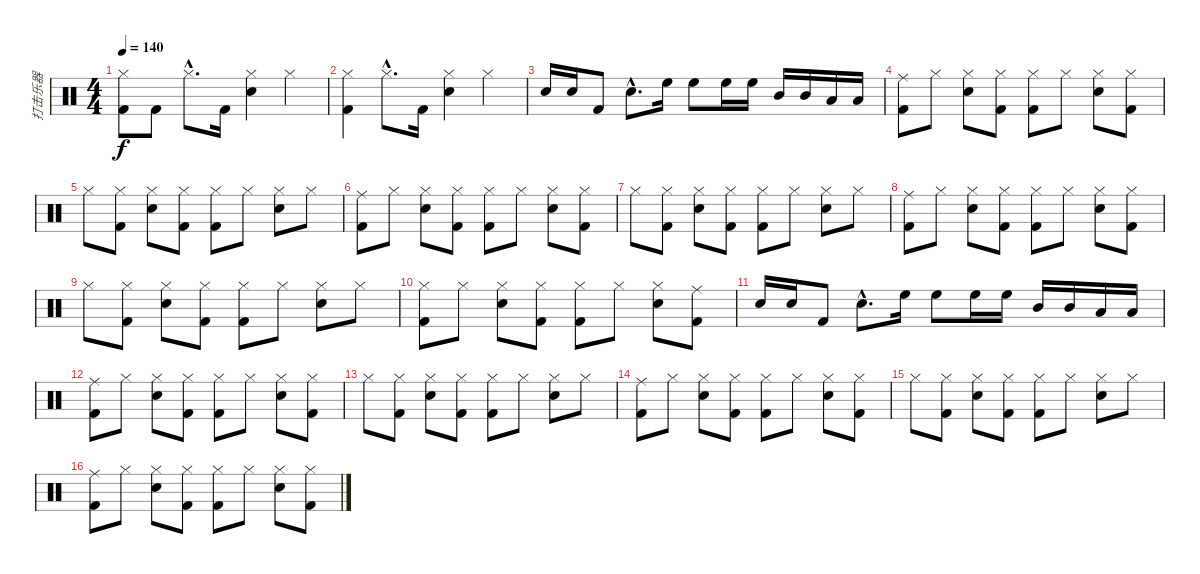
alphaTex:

\track ("打击乐器" "打击乐器") {instrument percussion}
\staff {score}
\articulation defaults
\ts (4 4)
\tempo 140
\clef neutral
\ks c
("Hi-Hat (closed)" "Kick (hit) 2").8{dy f} "Kick (hit) 2".8 "Hi-Hat (closed)"{hac}.8{d} "Kick (hit) 2".16 ("Hi-Hat (closed)" "Snare (hit) 2").4 "Hi-Hat (closed)".4 |
("Hi-Hat (closed)" "Kick (hit) 2").4 "Hi-Hat (closed)"{hac}.8{d} "Kick (hit) 2".16 ("Hi-Hat (closed)" "Snare (hit) 2").4 "Hi-Hat (closed)".4 |
"Snare (hit) 2".16 "Snare (hit) 2".16 "Kick (hit) 2".8 "Snare (hit) 2"{hac}.8{d} "High Floor Tom (hit)".16 "High Floor Tom (hit)".8 "High Floor Tom (hit)".16 "High Floor Tom (hit)".16 "Mid Tom (hit)".16 "Mid Tom (hit)".16 "Low Tom (hit)".16 "Low Tom (hit)".16 |
("Ride (middle)" "Kick (hit) 2").8 "Hi-Hat (closed)".8 ("Hi-Hat (closed)" "Snare (hit) 2").8 ("Hi-Hat (closed)" "Kick (hit) 2").8 ("Hi-Hat (closed)" "Kick (hit) 2").8 "Hi-Hat (closed)".8 ("Hi-Hat (closed)" "Snare (hit) 2").8 ("Hi-Hat (closed)" "Kick (hit) 2").8 |
"Hi-Hat (closed)".8 ("Hi-Hat (closed)" "Kick (hit) 2").8 ("Hi-Hat (closed)" "Snare (hit) 2").8 ("Hi-Hat (closed)" "Kick (hit) 2").8 ("Hi-Hat (closed)" "Kick (hit) 2").8 "Hi-Hat (closed)".8 ("Hi-Hat (closed)" "Snare (hit) 2").8 "Hi-Hat (closed)".8 |
("Ride (middle)" "Kick (hit) 2").8 "Hi-Hat (closed)".8 ("Hi-Hat (closed)" "Snare (hit) 2").8 ("Hi-Hat (closed)" "Kick (hit) 2").8 ("Hi-Hat (closed)" "Kick (hit) 2").8 "Hi-Hat (closed)".8 ("Hi-Hat (closed)" "Snare (hit) 2").8 ("Hi-Hat (closed)" "Kick (hit) 2").8 |
"Hi-Hat (closed)".8 ("Hi-Hat (closed)" "Kick (hit) 2").8 ("Hi-Hat (closed)" "Snare (hit) 2").8 ("Hi-Hat (closed)" "Kick (hit) 2").8 ("Hi-Hat (closed)" "Kick (hit) 2").8 "Hi-Hat (closed)".8 ("Hi-Hat (closed)" "Snare (hit) 2").8 "Hi-Hat (closed)".8 |
("Ride (middle)" "Kick (hit) 2").8 "Hi-Hat (closed)".8 ("Hi-Hat (closed)" "Snare (hit) 2").8 ("Hi-Hat (closed)" "Kick (hit) 2").8 ("Hi-Hat (closed)" "Kick (hit) 2").8 "Hi-Hat (closed)".8 ("Hi-Hat (closed)" "Snare (hit) 2").8 ("Hi-Hat (closed)" "Kick (hit) 2").8 |
"Hi-Hat (closed)".8 ("Hi-Hat (closed)" "Kick (hit) 2").8 ("Hi-Hat (closed)" "Snare (hit) 2").8 ("Hi-Hat (closed)" "Kick (hit) 2").8 ("Hi-Hat (closed)" "Kick (hit) 2").8 "Hi-Hat (closed)".8 ("Hi-Hat (closed)" "Snare (hit) 2").8 "Hi-Hat (closed)".8 |
("Hi-Hat (closed)" "Kick (hit) 2").8 "Hi-Hat (closed)".8 ("Hi-Hat (closed)" "Snare (hit) 2").8 ("Hi-Hat (closed)" "Kick (hit) 2").8 ("Hi-Hat (closed)" "Kick (hit) 2").8 "Hi-Hat (closed)".8 ("Hi-Hat (closed)" "Snare (hit) 2").8 ("Ride (middle)" "Kick (hit) 2").8 |
"Snare (hit) 2".16 "Snare (hit) 2".16 "Kick (hit) 2".8 "Snare (hit) 2"{hac}.8{d} "High Floor Tom (hit)".16 "High Floor Tom (hit)".8 "High Floor Tom (hit)".16 "High Floor Tom (hit)".16 "Mid Tom (hit)".16 "Mid Tom (hit)".16 "Low Tom (hit)".16 "Low Tom (hit)".16 |
("Ride (middle)" "Kick (hit) 2").8 "Hi-Hat (closed)".8 ("Hi-Hat (closed)" "Snare (hit) 2").8 ("Hi-Hat (closed)" "Kick (hit) 2").8 ("Hi-Hat (closed)" "Kick (hit) 2").8 "Hi-Hat (closed)".8 ("Hi-Hat (closed)" "Snare (hit) 2").8 ("Hi-Hat (closed)" "Kick (hit) 2").8 |
"Hi-Hat (closed)".8 ("Hi-Hat (closed)" "Kick (hit) 2").8 ("Hi-Hat (closed)" "Snare (hit) 2").8 ("Hi-Hat (closed)" "Kick (hit) 2").8 ("Hi-Hat (closed)" "Kick (hit) 2").8 "Hi-Hat (closed)".8 ("Hi-Hat (closed)" "Snare (hit) 2").8 "Hi-Hat (closed)".8 |
("Ride (middle)" "Kick (hit) 2").8 "Hi-Hat (closed)".8 ("Hi-Hat (closed)" "Snare (hit) 2").8 ("Hi-Hat (closed)" "Kick (hit) 2").8 ("Hi-Hat (closed)" "Kick (hit) 2").8 "Hi-Hat (closed)".8 ("Hi-Hat (closed)" "Snare (hit) 2").8 ("Hi-Hat (closed)" "Kick (hit) 2").8 |
"Hi-Hat (closed)".8 ("Hi-Hat (closed)" "Kick (hit) 2").8 ("Hi-Hat (closed)" "Snare (hit) 2").8 ("Hi-Hat (closed)" "Kick (hit) 2").8 ("Hi-Hat (closed)" "Kick (hit) 2").8 "Hi-Hat (closed)".8 ("Hi-Hat (closed)" "Snare (hit) 2").8 "Hi-Hat (closed)".8 |
("Ride (middle)" "Kick (hit) 2").8 "Hi-Hat (closed)".8 ("Hi-Hat (closed)" "Snare (hit) 2").8 ("Hi-Hat (closed)" "Kick (hit) 2").8 ("Hi-Hat (closed)" "Kick (hit) 2").8 "Hi-Hat (closed)".8 ("Hi-Hat (closed)" "Snare (hit) 2").8 ("Hi-Hat (closed)" "Kick (hit) 2").8
